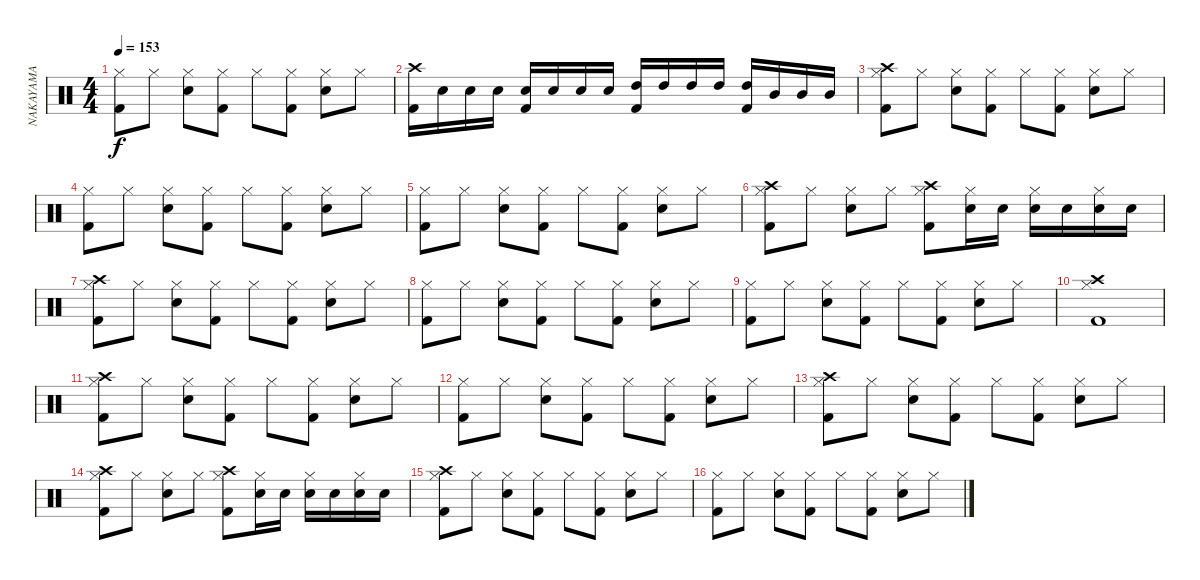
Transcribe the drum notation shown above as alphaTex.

\track ("NAKAYAMA" "NAKAYAMA") {instrument percussion}
\staff {score}
\articulation defaults
\ts (4 4)
\tempo 153
\clef neutral
\ks c
("Hi-Hat (closed)" "Kick (hit) 2").8{dy f} "Hi-Hat (closed)".8 ("Hi-Hat (closed)" "Snare (hit) 2").8 ("Hi-Hat (closed)" "Kick (hit) 2").8 "Hi-Hat (closed)".8 ("Hi-Hat (closed)" "Kick (hit) 2").8 ("Hi-Hat (closed)" "Snare (hit) 2").8 "Hi-Hat (closed)".8 |
("Crash high (hit)" "Kick (hit) 2").16 "Snare (hit) 2".16 "Snare (hit) 2".16 "Snare (hit) 2".16 ("Snare (hit) 2" "Kick (hit) 2").16 "Snare (hit) 2".16 "Snare (hit) 2".16 "Snare (hit) 2".16 ("High Tom (hit)" "Kick (hit) 2").16 "High Tom (hit)".16 "High Tom (hit)".16 "High Tom (hit)".16 ("High Tom (hit)" "Kick (hit) 2").16 "Mid Tom (hit)".16 "Mid Tom (hit)".16 "Mid Tom (hit)".16 |
("Crash high (hit)" "Hi-Hat (closed)" "Kick (hit) 2").8 "Hi-Hat (closed)".8 ("Hi-Hat (closed)" "Snare (hit) 2").8 ("Hi-Hat (closed)" "Kick (hit) 2").8 "Hi-Hat (closed)".8 ("Hi-Hat (closed)" "Kick (hit) 2").8 ("Hi-Hat (closed)" "Snare (hit) 2").8 "Hi-Hat (closed)".8 |
("Hi-Hat (closed)" "Kick (hit) 2").8 "Hi-Hat (closed)".8 ("Hi-Hat (closed)" "Snare (hit) 2").8 ("Hi-Hat (closed)" "Kick (hit) 2").8 "Hi-Hat (closed)".8 ("Hi-Hat (closed)" "Kick (hit) 2").8 ("Hi-Hat (closed)" "Snare (hit) 2").8 "Hi-Hat (closed)".8 |
("Hi-Hat (closed)" "Kick (hit) 2").8 "Hi-Hat (closed)".8 ("Hi-Hat (closed)" "Snare (hit) 2").8 ("Hi-Hat (closed)" "Kick (hit) 2").8 "Hi-Hat (closed)".8 ("Hi-Hat (closed)" "Kick (hit) 2").8 ("Hi-Hat (closed)" "Snare (hit) 2").8 "Hi-Hat (closed)".8 |
("Crash high (hit)" "Hi-Hat (closed)" "Kick (hit) 2").8 "Hi-Hat (closed)".8 ("Hi-Hat (closed)" "Snare (hit) 2").8 "Hi-Hat (closed)".8 ("Crash high (hit)" "Hi-Hat (closed)" "Kick (hit) 2").8 ("Hi-Hat (closed)" "Snare (hit) 2").16 "Snare (hit) 2".16 ("Hi-Hat (closed)" "Snare (hit) 2").16 "Snare (hit) 2".16 ("Hi-Hat (closed)" "Snare (hit) 2").16 "Snare (hit) 2".16 |
("Crash high (hit)" "Hi-Hat (closed)" "Kick (hit) 2").8 "Hi-Hat (closed)".8 ("Hi-Hat (closed)" "Snare (hit) 2").8 ("Hi-Hat (closed)" "Kick (hit) 2").8 "Hi-Hat (closed)".8 ("Hi-Hat (closed)" "Kick (hit) 2").8 ("Hi-Hat (closed)" "Snare (hit) 2").8 "Hi-Hat (closed)".8 |
("Hi-Hat (closed)" "Kick (hit) 2").8 "Hi-Hat (closed)".8 ("Hi-Hat (closed)" "Snare (hit) 2").8 ("Hi-Hat (closed)" "Kick (hit) 2").8 "Hi-Hat (closed)".8 ("Hi-Hat (closed)" "Kick (hit) 2").8 ("Hi-Hat (closed)" "Snare (hit) 2").8 "Hi-Hat (closed)".8 |
("Hi-Hat (closed)" "Kick (hit) 2").8 "Hi-Hat (closed)".8 ("Hi-Hat (closed)" "Snare (hit) 2").8 ("Hi-Hat (closed)" "Kick (hit) 2").8 "Hi-Hat (closed)".8 ("Hi-Hat (closed)" "Kick (hit) 2").8 ("Hi-Hat (closed)" "Snare (hit) 2").8 "Hi-Hat (closed)".8 |
("Crash high (hit)" "Hi-Hat (closed)" "Kick (hit) 2").1 |
("Crash high (hit)" "Hi-Hat (closed)" "Kick (hit) 2").8 "Hi-Hat (closed)".8 ("Hi-Hat (closed)" "Snare (hit) 2").8 ("Hi-Hat (closed)" "Kick (hit) 2").8 "Hi-Hat (closed)".8 ("Hi-Hat (closed)" "Kick (hit) 2").8 ("Hi-Hat (closed)" "Snare (hit) 2").8 "Hi-Hat (closed)".8 |
("Hi-Hat (closed)" "Kick (hit) 2").8 "Hi-Hat (closed)".8 ("Hi-Hat (closed)" "Snare (hit) 2").8 ("Hi-Hat (closed)" "Kick (hit) 2").8 "Hi-Hat (closed)".8 ("Hi-Hat (closed)" "Kick (hit) 2").8 ("Hi-Hat (closed)" "Snare (hit) 2").8 "Hi-Hat (closed)".8 |
("Crash high (hit)" "Hi-Hat (closed)" "Kick (hit) 2").8 "Hi-Hat (closed)".8 ("Hi-Hat (closed)" "Snare (hit) 2").8 ("Hi-Hat (closed)" "Kick (hit) 2").8 "Hi-Hat (closed)".8 ("Hi-Hat (closed)" "Kick (hit) 2").8 ("Hi-Hat (closed)" "Snare (hit) 2").8 "Hi-Hat (closed)".8 |
("Crash high (hit)" "Hi-Hat (closed)" "Kick (hit) 2").8 "Hi-Hat (closed)".8 ("Hi-Hat (closed)" "Snare (hit) 2").8 "Hi-Hat (closed)".8 ("Crash high (hit)" "Hi-Hat (closed)" "Kick (hit) 2").8 ("Hi-Hat (closed)" "Snare (hit) 2").16 "Snare (hit) 2".16 ("Hi-Hat (closed)" "Snare (hit) 2").16 "Snare (hit) 2".16 ("Hi-Hat (closed)" "Snare (hit) 2").16 "Snare (hit) 2".16 |
("Crash high (hit)" "Hi-Hat (closed)" "Kick (hit) 2").8 "Hi-Hat (closed)".8 ("Hi-Hat (closed)" "Snare (hit) 2").8 ("Hi-Hat (closed)" "Kick (hit) 2").8 "Hi-Hat (closed)".8 ("Hi-Hat (closed)" "Kick (hit) 2").8 ("Hi-Hat (closed)" "Snare (hit) 2").8 "Hi-Hat (closed)".8 |
("Hi-Hat (closed)" "Kick (hit) 2").8 "Hi-Hat (closed)".8 ("Hi-Hat (closed)" "Snare (hit) 2").8 ("Hi-Hat (closed)" "Kick (hit) 2").8 "Hi-Hat (closed)".8 ("Hi-Hat (closed)" "Kick (hit) 2").8 ("Hi-Hat (closed)" "Snare (hit) 2").8 "Hi-Hat (closed)".8
